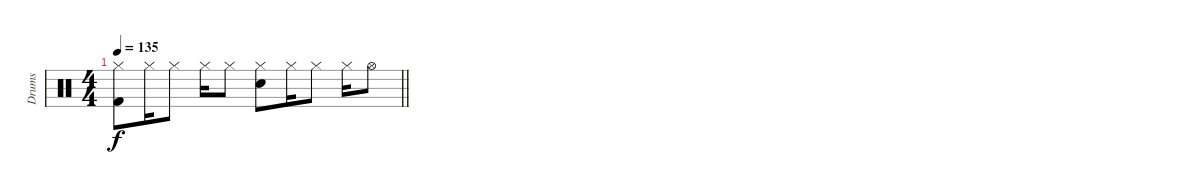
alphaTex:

\track ("Drums" "Drums") {instrument percussion}
\staff {score}
\articulation defaults
\ts (4 4)
\tempo 135
\clef neutral
\barLineRight lightlight
\ks c
("Hi-Hat (closed)" "Kick (hit) 2").8{dy f} "Hi-Hat (closed)".16 "Hi-Hat (closed)".8 "Hi-Hat (closed)".16 "Hi-Hat (closed)".8 ("Hi-Hat (closed)" "Electric Snare (hit)").8 "Hi-Hat (closed)".16 "Hi-Hat (closed)".8 "Hi-Hat (closed)".16 "Hi-Hat (open)".8
